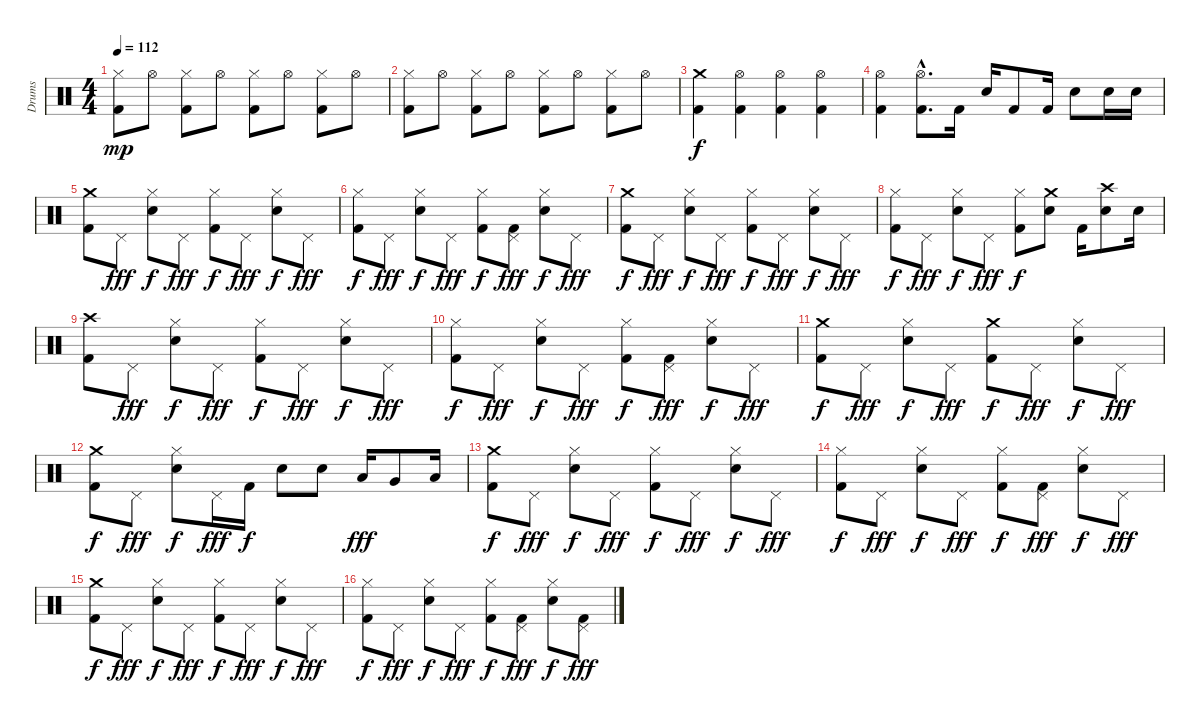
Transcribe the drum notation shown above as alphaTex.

\track ("Drums" "Drums") {instrument percussion}
\staff {score}
\articulation defaults
\ts (4 4)
\tempo 112
\clef neutral
\ks c
("Kick (hit) 2" "Hi-Hat (closed)").8{dy mp} "Hi-Hat (open)".8 ("Kick (hit) 2" "Hi-Hat (closed)").8 "Hi-Hat (open)".8 ("Kick (hit) 2" "Hi-Hat (closed)").8 "Hi-Hat (open)".8 ("Kick (hit) 2" "Hi-Hat (closed)").8 "Hi-Hat (open)".8 |
("Kick (hit) 2" "Hi-Hat (closed)").8 "Hi-Hat (open)".8 ("Kick (hit) 2" "Hi-Hat (closed)").8 "Hi-Hat (open)".8 ("Kick (hit) 2" "Hi-Hat (closed)").8 "Hi-Hat (open)".8 ("Kick (hit) 2" "Hi-Hat (closed)").8 "Hi-Hat (open)".8 |
("Kick (hit) 2" "Crash medium (hit)").4{dy f} ("Kick (hit) 2" "Hi-Hat (open)").4 ("Kick (hit) 2" "Hi-Hat (open)").4 ("Kick (hit) 2" "Hi-Hat (open)").4 |
("Kick (hit) 2" "Hi-Hat (open)").4 ("Kick (hit) 2"{hac} "Hi-Hat (open)"{hac}).8{d} "Kick (hit) 2".16 "Snare (hit) 2".16 "Kick (hit) 2".8 "Kick (hit) 2".16 "Snare (hit) 2".8 "Snare (hit) 2".16 "Snare (hit) 2".16 |
("Kick (hit) 2" "Crash medium (hit)").8 "Pedal Hi-Hat (hit)".8{dy fff} ("Hi-Hat (closed)" "Snare (hit) 2").8{dy f} "Pedal Hi-Hat (hit)".8{dy fff} ("Kick (hit) 2" "Hi-Hat (closed)").8{dy f} "Pedal Hi-Hat (hit)".8{dy fff} ("Hi-Hat (closed)" "Snare (hit) 2").8{dy f} "Pedal Hi-Hat (hit)".8{dy fff} |
("Kick (hit) 2" "Hi-Hat (closed)").8{dy f} "Pedal Hi-Hat (hit)".8{dy fff} ("Hi-Hat (closed)" "Snare (hit) 2").8{dy f} "Pedal Hi-Hat (hit)".8{dy fff} ("Kick (hit) 2" "Hi-Hat (closed)").8{dy f} ("Kick (hit) 2" "Pedal Hi-Hat (hit)").8{dy fff} ("Hi-Hat (closed)" "Snare (hit) 2").8{dy f} "Pedal Hi-Hat (hit)".8{dy fff} |
("Kick (hit) 2" "Crash medium (hit)").8{dy f} "Pedal Hi-Hat (hit)".8{dy fff} ("Hi-Hat (closed)" "Snare (hit) 2").8{dy f} "Pedal Hi-Hat (hit)".8{dy fff} ("Kick (hit) 2" "Hi-Hat (closed)").8{dy f} "Pedal Hi-Hat (hit)".8{dy fff} ("Hi-Hat (closed)" "Snare (hit) 2").8{dy f} "Pedal Hi-Hat (hit)".8{dy fff} |
("Kick (hit) 2" "Hi-Hat (closed)").8{dy f} "Pedal Hi-Hat (hit)".8{dy fff} ("Hi-Hat (closed)" "Snare (hit) 2").8{dy f} "Pedal Hi-Hat (hit)".8{dy fff} ("Kick (hit) 2" "Hi-Hat (closed)").8{dy f} ("Crash medium (hit)" "Snare (hit) 2").8 "Kick (hit) 2".16 ("Crash high (hit)" "Snare (hit) 2").8 "Snare (hit) 2".16 |
("Kick (hit) 2" "Crash high (hit)").8 "Pedal Hi-Hat (hit)".8{dy fff} ("Hi-Hat (closed)" "Snare (hit) 2").8{dy f} "Pedal Hi-Hat (hit)".8{dy fff} ("Kick (hit) 2" "Hi-Hat (closed)").8{dy f} "Pedal Hi-Hat (hit)".8{dy fff} ("Hi-Hat (closed)" "Snare (hit) 2").8{dy f} "Pedal Hi-Hat (hit)".8{dy fff} |
("Kick (hit) 2" "Hi-Hat (closed)").8{dy f} "Pedal Hi-Hat (hit)".8{dy fff} ("Hi-Hat (closed)" "Snare (hit) 2").8{dy f} "Pedal Hi-Hat (hit)".8{dy fff} ("Kick (hit) 2" "Hi-Hat (closed)").8{dy f} ("Kick (hit) 2" "Pedal Hi-Hat (hit)").8{dy fff} ("Hi-Hat (closed)" "Snare (hit) 2").8{dy f} "Pedal Hi-Hat (hit)".8{dy fff} |
("Kick (hit) 2" "Crash medium (hit)").8{dy f} "Pedal Hi-Hat (hit)".8{dy fff} ("Hi-Hat (closed)" "Snare (hit) 2").8{dy f} "Pedal Hi-Hat (hit)".8{dy fff} ("Kick (hit) 2" "Crash medium (hit)").8{dy f} "Pedal Hi-Hat (hit)".8{dy fff} ("Hi-Hat (closed)" "Snare (hit) 2").8{dy f} "Pedal Hi-Hat (hit)".8{dy fff} |
("Kick (hit) 2" "Crash medium (hit)").8{dy f} "Pedal Hi-Hat (hit)".8{dy fff} ("Hi-Hat (closed)" "Snare (hit) 2").8{dy f} "Pedal Hi-Hat (hit)".16{dy fff} "Kick (hit) 2".16{dy f} "Snare (hit) 2".8 "Snare (hit) 2".8 "Low Tom (hit)".16{dy fff} "Very Low Tom (hit)".8 "Low Floor Tom (hit)".16 |
("Kick (hit) 2" "Crash medium (hit)").8{dy f} "Pedal Hi-Hat (hit)".8{dy fff} ("Hi-Hat (closed)" "Snare (hit) 2").8{dy f} "Pedal Hi-Hat (hit)".8{dy fff} ("Kick (hit) 2" "Hi-Hat (closed)").8{dy f} "Pedal Hi-Hat (hit)".8{dy fff} ("Hi-Hat (closed)" "Snare (hit) 2").8{dy f} "Pedal Hi-Hat (hit)".8{dy fff} |
("Kick (hit) 2" "Hi-Hat (closed)").8{dy f} "Pedal Hi-Hat (hit)".8{dy fff} ("Hi-Hat (closed)" "Snare (hit) 2").8{dy f} "Pedal Hi-Hat (hit)".8{dy fff} ("Kick (hit) 2" "Hi-Hat (closed)").8{dy f} ("Kick (hit) 2" "Pedal Hi-Hat (hit)").8{dy fff} ("Hi-Hat (closed)" "Snare (hit) 2").8{dy f} "Pedal Hi-Hat (hit)".8{dy fff} |
("Kick (hit) 2" "Crash medium (hit)").8{dy f} "Pedal Hi-Hat (hit)".8{dy fff} ("Hi-Hat (closed)" "Snare (hit) 2").8{dy f} "Pedal Hi-Hat (hit)".8{dy fff} ("Kick (hit) 2" "Hi-Hat (closed)").8{dy f} "Pedal Hi-Hat (hit)".8{dy fff} ("Hi-Hat (closed)" "Snare (hit) 2").8{dy f} "Pedal Hi-Hat (hit)".8{dy fff} |
("Kick (hit) 2" "Hi-Hat (closed)").8{dy f} "Pedal Hi-Hat (hit)".8{dy fff} ("Hi-Hat (closed)" "Snare (hit) 2").8{dy f} "Pedal Hi-Hat (hit)".8{dy fff} ("Kick (hit) 2" "Hi-Hat (closed)").8{dy f} ("Kick (hit) 2" "Pedal Hi-Hat (hit)").8{dy fff} ("Hi-Hat (closed)" "Snare (hit) 2").8{dy f} ("Kick (hit) 2" "Pedal Hi-Hat (hit)").8{dy fff}
